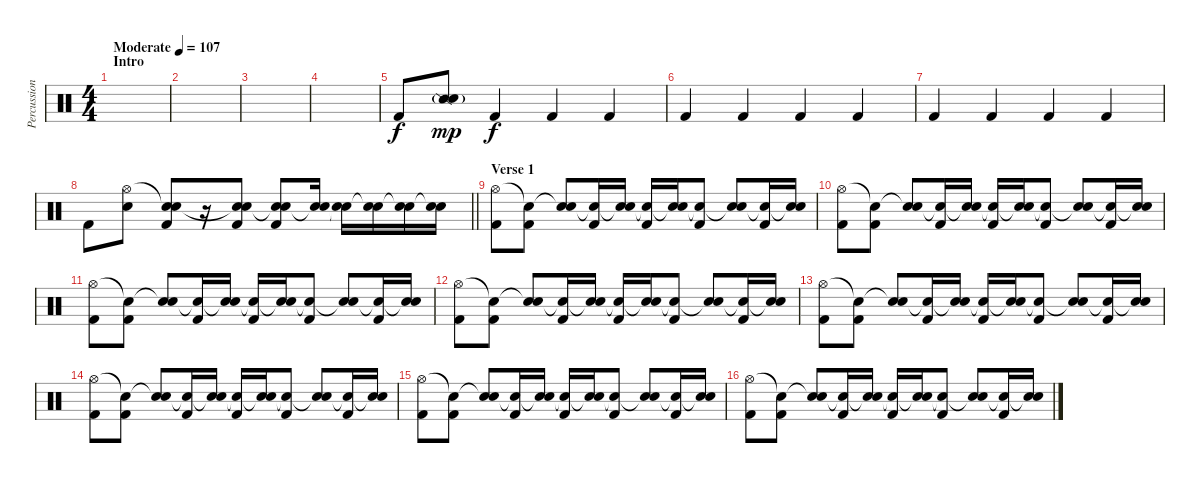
\track ("Percussioni" "Percussion") {instrument percussion}
\staff {score}
\articulation defaults
\ts (4 4)
\section ("" "Intro")
\tempo (107 "Moderate")
\clef neutral
\ks c
|
|
|
|
"Kick (hit) 2".8 ("Snare (side stick) 2"{g} "Snare (hit)").8{dy mp} "Kick (hit) 2".4{dy f} "Kick (hit) 2".4 "Kick (hit) 2".4 |
"Kick (hit) 2".4 "Kick (hit) 2".4 "Kick (hit) 2".4 "Kick (hit) 2".4 |
"Kick (hit) 2".4 "Kick (hit) 2".4 "Kick (hit) 2".4 "Kick (hit) 2".4 |
\barLineRight lightlight "Kick (hit) 2".8
("Hi-Hat (open)" "Electric Snare (hit)").8 ("Snare (hit)"{t} "Electric Snare (hit)" "Kick (hit) 2").8 r.16 ("Snare (hit)"{t} "Electric Snare (hit)" "Kick (hit) 2").8 ("Snare (hit)"{t} "Electric Snare (hit)" "Kick (hit) 2").8 ("Snare (hit)"{t} "Electric Snare (hit)").16 ("Snare (hit)"{t} "Electric Snare (hit)").16 ("Snare (hit)"{t} "Electric Snare (hit)").16 ("Snare (hit)"{t} "Electric Snare (hit)").16 ("Snare (hit)"{t} "Electric Snare (hit)").16 |
\section ("" "Verse 1")
("Hi-Hat (open)" "Kick (hit) 2").8 ("Snare (hit)"{t} "Kick (hit) 2").8 ("Snare (hit)"{t} "Electric Snare (hit)").8 ("Snare (hit)"{t} "Kick (hit) 2").16 ("Snare (hit)"{t} "Electric Snare (hit)").16 ("Snare (hit)"{t} "Kick (hit) 2").16 ("Snare (hit)"{t} "Electric Snare (hit)").16 ("Snare (hit)"{t} "Kick (hit) 2").8 ("Snare (hit)"{t} "Electric Snare (hit)").8 ("Snare (hit)"{t} "Kick (hit) 2").16 ("Snare (hit)"{t} "Electric Snare (hit)").16 |
("Hi-Hat (open)" "Kick (hit) 2").8 ("Snare (hit)"{t} "Kick (hit) 2").8 ("Snare (hit)"{t} "Electric Snare (hit)").8 ("Snare (hit)"{t} "Kick (hit) 2").16 ("Snare (hit)"{t} "Electric Snare (hit)").16 ("Snare (hit)"{t} "Kick (hit) 2").16 ("Snare (hit)"{t} "Electric Snare (hit)").16 ("Snare (hit)"{t} "Kick (hit) 2").8 ("Snare (hit)"{t} "Electric Snare (hit)").8 ("Snare (hit)"{t} "Kick (hit) 2").16 ("Snare (hit)"{t} "Electric Snare (hit)").16 |
("Hi-Hat (open)" "Kick (hit) 2").8 ("Snare (hit)"{t} "Kick (hit) 2").8 ("Snare (hit)"{t} "Electric Snare (hit)").8 ("Snare (hit)"{t} "Kick (hit) 2").16 ("Snare (hit)"{t} "Electric Snare (hit)").16 ("Snare (hit)"{t} "Kick (hit) 2").16 ("Snare (hit)"{t} "Electric Snare (hit)").16 ("Snare (hit)"{t} "Kick (hit) 2").8 ("Snare (hit)"{t} "Electric Snare (hit)").8 ("Snare (hit)"{t} "Kick (hit) 2").16 ("Snare (hit)"{t} "Electric Snare (hit)").16 |
("Hi-Hat (open)" "Kick (hit) 2").8 ("Snare (hit)"{t} "Kick (hit) 2").8 ("Snare (hit)"{t} "Electric Snare (hit)").8 ("Snare (hit)"{t} "Kick (hit) 2").16 ("Snare (hit)"{t} "Electric Snare (hit)").16 ("Snare (hit)"{t} "Kick (hit) 2").16 ("Snare (hit)"{t} "Electric Snare (hit)").16 ("Snare (hit)"{t} "Kick (hit) 2").8 ("Snare (hit)"{t} "Electric Snare (hit)").8 ("Snare (hit)"{t} "Kick (hit) 2").16 ("Snare (hit)"{t} "Electric Snare (hit)").16 |
("Hi-Hat (open)" "Kick (hit) 2").8 ("Snare (hit)"{t} "Kick (hit) 2").8 ("Snare (hit)"{t} "Electric Snare (hit)").8 ("Snare (hit)"{t} "Kick (hit) 2").16 ("Snare (hit)"{t} "Electric Snare (hit)").16 ("Snare (hit)"{t} "Kick (hit) 2").16 ("Snare (hit)"{t} "Electric Snare (hit)").16 ("Snare (hit)"{t} "Kick (hit) 2").8 ("Snare (hit)"{t} "Electric Snare (hit)").8 ("Snare (hit)"{t} "Kick (hit) 2").16 ("Snare (hit)"{t} "Electric Snare (hit)").16 |
("Hi-Hat (open)" "Kick (hit) 2").8 ("Snare (hit)"{t} "Kick (hit) 2").8 ("Snare (hit)"{t} "Electric Snare (hit)").8 ("Snare (hit)"{t} "Kick (hit) 2").16 ("Snare (hit)"{t} "Electric Snare (hit)").16 ("Snare (hit)"{t} "Kick (hit) 2").16 ("Snare (hit)"{t} "Electric Snare (hit)").16 ("Snare (hit)"{t} "Kick (hit) 2").8 ("Snare (hit)"{t} "Electric Snare (hit)").8 ("Snare (hit)"{t} "Kick (hit) 2").16 ("Snare (hit)"{t} "Electric Snare (hit)").16 |
("Hi-Hat (open)" "Kick (hit) 2").8 ("Snare (hit)"{t} "Kick (hit) 2").8 ("Snare (hit)"{t} "Electric Snare (hit)").8 ("Snare (hit)"{t} "Kick (hit) 2").16 ("Snare (hit)"{t} "Electric Snare (hit)").16 ("Snare (hit)"{t} "Kick (hit) 2").16 ("Snare (hit)"{t} "Electric Snare (hit)").16 ("Snare (hit)"{t} "Kick (hit) 2").8 ("Snare (hit)"{t} "Electric Snare (hit)").8 ("Snare (hit)"{t} "Kick (hit) 2").16 ("Snare (hit)"{t} "Electric Snare (hit)").16 |
("Hi-Hat (open)" "Kick (hit) 2").8 ("Snare (hit)"{t} "Kick (hit) 2").8 ("Snare (hit)"{t} "Electric Snare (hit)").8 ("Snare (hit)"{t} "Kick (hit) 2").16 ("Snare (hit)"{t} "Electric Snare (hit)").16 ("Snare (hit)"{t} "Kick (hit) 2").16 ("Snare (hit)"{t} "Electric Snare (hit)").16 ("Snare (hit)"{t} "Kick (hit) 2").8 ("Snare (hit)"{t} "Electric Snare (hit)").8 ("Snare (hit)"{t} "Kick (hit) 2").16 ("Snare (hit)"{t} "Electric Snare (hit)").16
